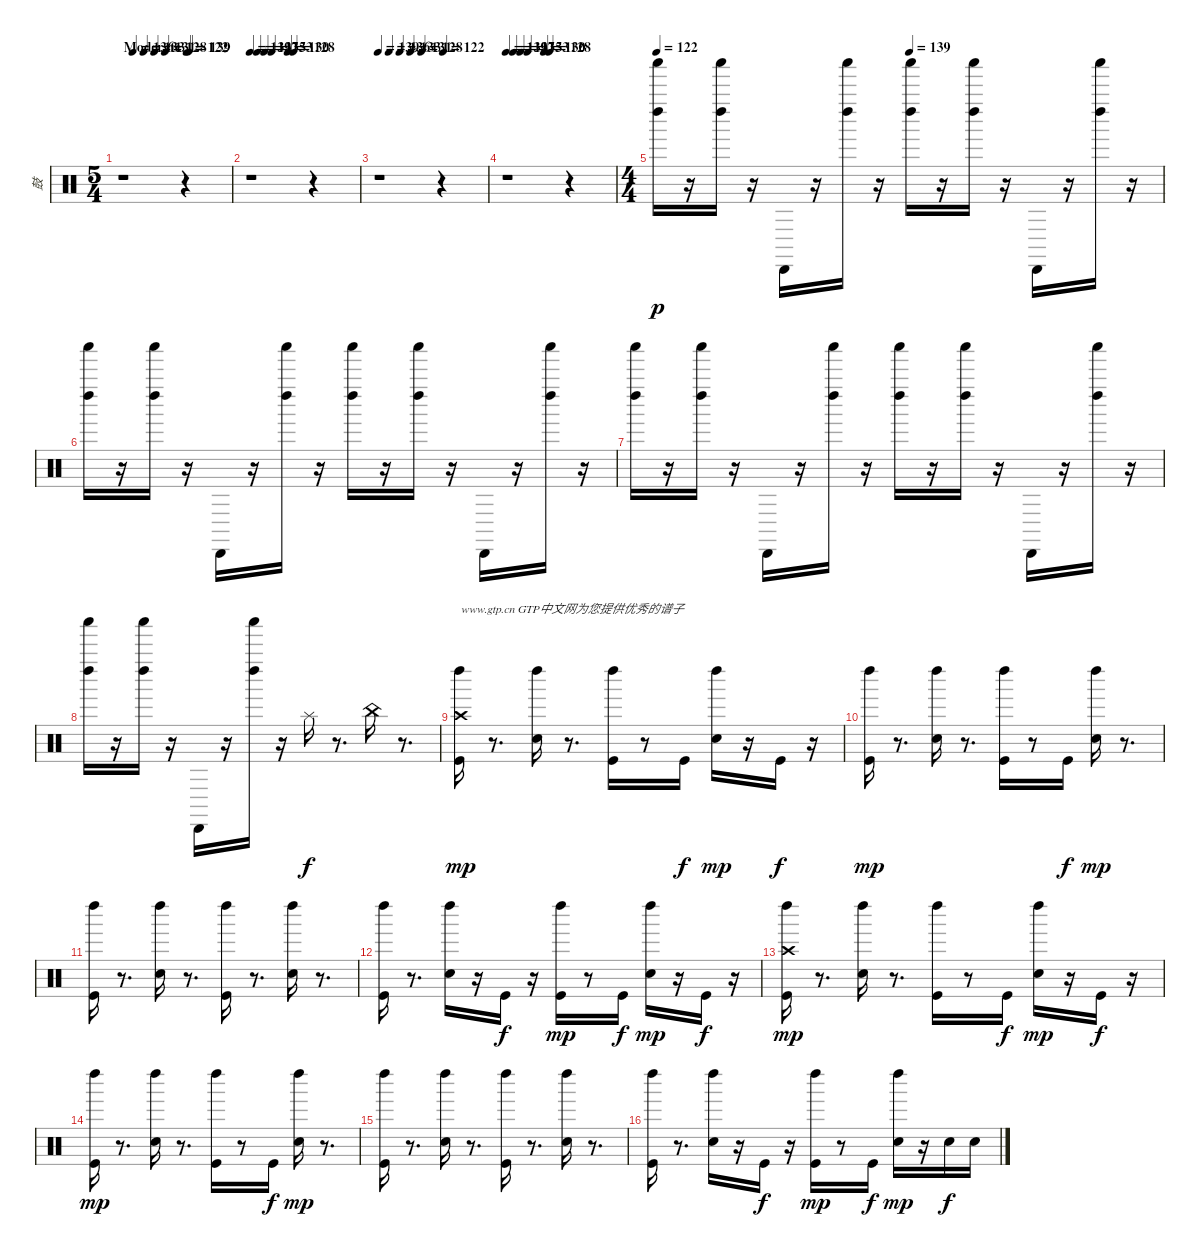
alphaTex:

\track ("鼓" "鼓") {instrument percussion}
\staff {score}
\articulation defaults
\ts (5 4)
\tempo (139 "Moderate")
\tempo (136 0.1)
\tempo (133 0.2)
\tempo (131 0.3)
\tempo (128 0.4)
\tempo (122 0.6)
\tempo (139 "Moderate")
\clef neutral
\ks c
r.1{dy p} r.4 |
\tempo 139
\tempo (137 0.06666666666666667)
\tempo (135 0.13333333333333333)
\tempo (133 0.2)
\tempo (130 0.35)
\tempo (128 0.4)
r.1 r.4 |
\tempo 139
\tempo (136 0.1)
\tempo (133 0.2)
\tempo (131 0.3)
\tempo (128 0.4)
\tempo (122 0.6)
r.1 r.4 |
\tempo 139
\tempo (137 0.06666666666666667)
\tempo (135 0.13333333333333333)
\tempo (133 0.2)
\tempo (130 0.35)
\tempo (128 0.4)
r.1 r.4 |
\ts (4 4)
\tempo 122
\tempo (139 0.5)
("Left Maraca (hit)" "Shaker (hit)").16 r.16 ("Left Maraca (hit)" "Shaker (hit)").16 r.16 "Cabasa (hit)".16{balance 16} r.16 ("Left Maraca (hit)" "Shaker (hit)").16{balance 8} r.16 ("Left Maraca (hit)" "Shaker (hit)").16 r.16 ("Left Maraca (hit)" "Shaker (hit)").16 r.16 "Cabasa (hit)".16{balance 16} r.16 ("Left Maraca (hit)" "Shaker (hit)").16{balance 8} r.16 |
("Left Maraca (hit)" "Shaker (hit)").16 r.16 ("Left Maraca (hit)" "Shaker (hit)").16 r.16 "Cabasa (hit)".16{balance 16} r.16 ("Left Maraca (hit)" "Shaker (hit)").16{balance 8} r.16 ("Left Maraca (hit)" "Shaker (hit)").16 r.16 ("Left Maraca (hit)" "Shaker (hit)").16 r.16 "Cabasa (hit)".16{balance 16} r.16 ("Left Maraca (hit)" "Shaker (hit)").16{balance 8} r.16 |
("Left Maraca (hit)" "Shaker (hit)").16 r.16 ("Left Maraca (hit)" "Shaker (hit)").16 r.16 "Cabasa (hit)".16{balance 16} r.16 ("Left Maraca (hit)" "Shaker (hit)").16{balance 8} r.16 ("Left Maraca (hit)" "Shaker (hit)").16 r.16 ("Left Maraca (hit)" "Shaker (hit)").16 r.16 "Cabasa (hit)".16{balance 16} r.16 ("Left Maraca (hit)" "Shaker (hit)").16{balance 8} r.16 |
("Left Maraca (hit)" "Shaker (hit)").16 r.16 ("Left Maraca (hit)" "Shaker (hit)").16 r.16 "Cabasa (hit)".16{balance 16} r.16 ("Left Maraca (hit)" "Shaker (hit)").16{balance 8} r.16 "Splash (hit)".16{dy f} r.8{d} "China (hit)".16 r.8{d} |
("Left Maraca (hit)" "Kick (hit)" "Crash high (hit)").16{txt "www.gtp.cn GTP中文网为您提供优秀的谱子" dy mp} r.8{d} ("Left Maraca (hit)" "Electric Snare (hit)").16 r.8{d} ("Left Maraca (hit)" "Kick (hit)").16 r.8 "Kick (hit)".16{dy f} ("Left Maraca (hit)" "Electric Snare (hit)").16{dy mp} r.16 "Kick (hit)".16{dy f} r.16 |
("Kick (hit)" "Left Maraca (hit)").16{dy mp} r.8{d} ("Left Maraca (hit)" "Electric Snare (hit)").16 r.8{d} ("Kick (hit)" "Left Maraca (hit)").16 r.8 "Kick (hit)".16{dy f} ("Electric Snare (hit)" "Left Maraca (hit)").16{dy mp} r.8{d} |
("Kick (hit)" "Left Maraca (hit)").16 r.8{d} ("Electric Snare (hit)" "Left Maraca (hit)").16 r.8{d} ("Left Maraca (hit)" "Kick (hit)").16 r.8{d} ("Electric Snare (hit)" "Left Maraca (hit)").16 r.8{d} |
("Left Maraca (hit)" "Kick (hit)").16 r.8{d} ("Electric Snare (hit)" "Left Maraca (hit)").16 r.16 "Kick (hit)".16{dy f} r.16 ("Left Maraca (hit)" "Kick (hit)").16{dy mp} r.8 "Kick (hit)".16{dy f} ("Left Maraca (hit)" "Electric Snare (hit)").16{dy mp} r.16 "Kick (hit)".16{dy f} r.16 |
("Crash high (hit)" "Kick (hit)" "Left Maraca (hit)").16{dy mp} r.8{d} ("Left Maraca (hit)" "Electric Snare (hit)").16 r.8{d} ("Kick (hit)" "Left Maraca (hit)").16 r.8 "Kick (hit)".16{dy f} ("Electric Snare (hit)" "Left Maraca (hit)").16{dy mp} r.16 "Kick (hit)".16{dy f} r.16 |
("Kick (hit)" "Left Maraca (hit)").16{dy mp} r.8{d} ("Left Maraca (hit)" "Electric Snare (hit)").16 r.8{d} ("Kick (hit)" "Left Maraca (hit)").16 r.8 "Kick (hit)".16{dy f} ("Electric Snare (hit)" "Left Maraca (hit)").16{dy mp} r.8{d} |
("Left Maraca (hit)" "Kick (hit)").16 r.8{d} ("Electric Snare (hit)" "Left Maraca (hit)").16 r.8{d} ("Kick (hit)" "Left Maraca (hit)").16 r.8{d} ("Left Maraca (hit)" "Electric Snare (hit)").16 r.8{d} |
("Left Maraca (hit)" "Kick (hit)").16 r.8{d} ("Electric Snare (hit)" "Left Maraca (hit)").16 r.16 "Kick (hit)".16{dy f} r.16 ("Left Maraca (hit)" "Kick (hit)").16{dy mp} r.8 "Kick (hit)".16{dy f} ("Electric Snare (hit)" "Left Maraca (hit)").16{dy mp} r.16 "Electric Snare (hit)".16{dy f} "Electric Snare (hit)".16
